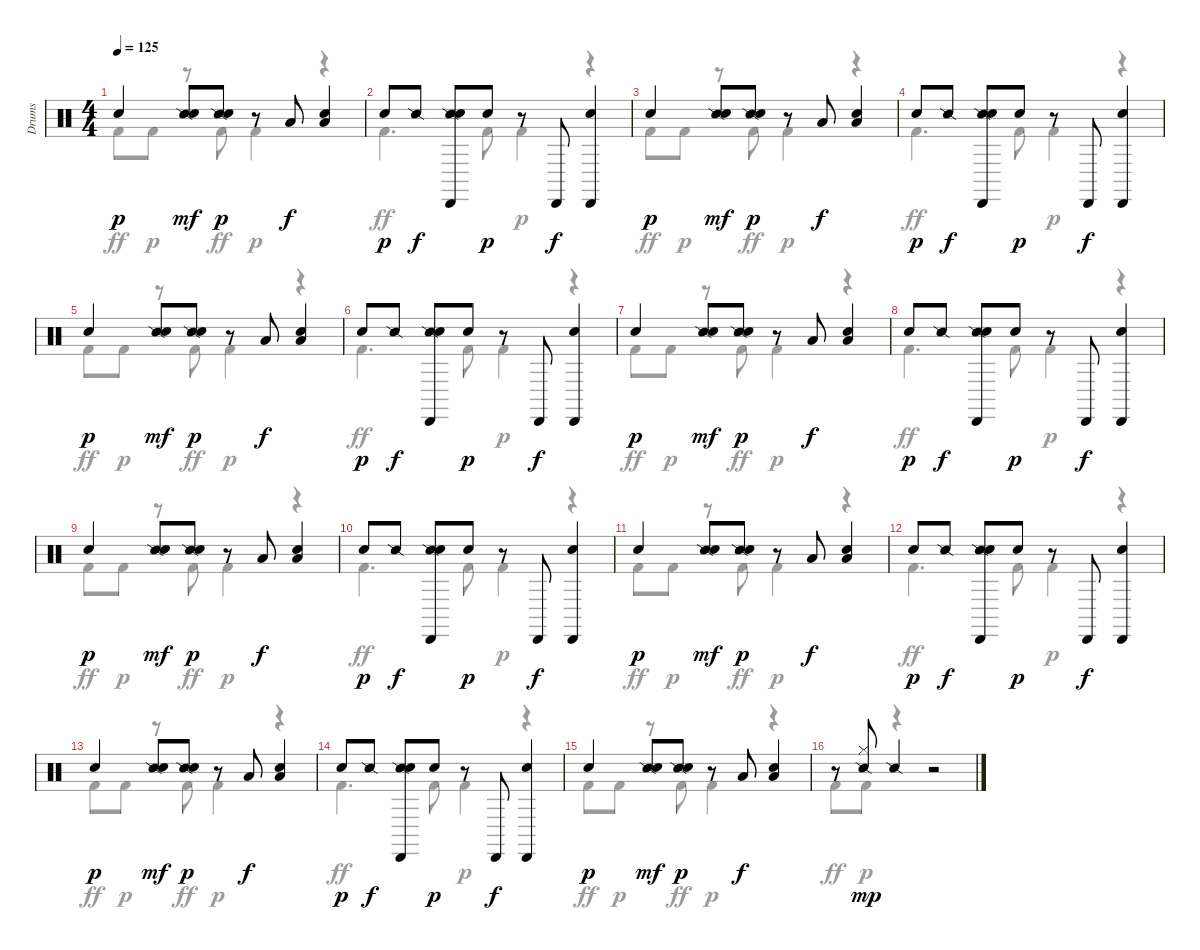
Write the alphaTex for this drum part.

\track ("Drums" "Drums") {instrument percussion}
\staff {score}
\articulation defaults
\voice
\ts (4 4)
\tempo 125
\clef neutral
\ks c "Hand Clap (hit)".4{dy p}
("Snare (side stick) 2" "Snare (hit) 2").8{dy mf} ("Snare (side stick) 2" "Hand Clap (hit)").8{dy p} r.8 "Low Tom (hit)".8{dy f} ("Low Tom (hit)" "Snare (hit) 2").4 |
"Hand Clap (hit)".8{dy p} "Snare (side stick) 2".8{dy f} ("Snare (side stick) 2" "Cabasa (hit)" "Snare (hit) 2").8 "Hand Clap (hit)".8{dy p} r.8 "Cabasa (hit)".8{dy f} ("Cabasa (hit)" "Snare (hit) 2").4 |
"Hand Clap (hit)".4{dy p} ("Snare (side stick) 2" "Snare (hit) 2").8{dy mf} ("Snare (side stick) 2" "Hand Clap (hit)").8{dy p} r.8 "Low Tom (hit)".8{dy f} ("Low Tom (hit)" "Snare (hit) 2").4 |
"Hand Clap (hit)".8{dy p} "Snare (side stick) 2".8{dy f} ("Snare (side stick) 2" "Cabasa (hit)" "Snare (hit) 2").8 "Hand Clap (hit)".8{dy p} r.8 "Cabasa (hit)".8{dy f} ("Cabasa (hit)" "Snare (hit) 2").4 |
"Hand Clap (hit)".4{dy p} ("Snare (side stick) 2" "Snare (hit) 2").8{dy mf} ("Snare (side stick) 2" "Hand Clap (hit)").8{dy p} r.8 "Low Tom (hit)".8{dy f} ("Low Tom (hit)" "Snare (hit) 2").4 |
"Hand Clap (hit)".8{dy p} "Snare (side stick) 2".8{dy f} ("Snare (side stick) 2" "Cabasa (hit)" "Snare (hit) 2").8 "Hand Clap (hit)".8{dy p} r.8 "Cabasa (hit)".8{dy f} ("Cabasa (hit)" "Snare (hit) 2").4 |
"Hand Clap (hit)".4{dy p} ("Snare (side stick) 2" "Snare (hit) 2").8{dy mf} ("Snare (side stick) 2" "Hand Clap (hit)").8{dy p} r.8 "Low Tom (hit)".8{dy f} ("Low Tom (hit)" "Snare (hit) 2").4 |
"Hand Clap (hit)".8{dy p} "Snare (side stick) 2".8{dy f} ("Snare (side stick) 2" "Cabasa (hit)" "Snare (hit) 2").8 "Hand Clap (hit)".8{dy p} r.8 "Cabasa (hit)".8{dy f} ("Cabasa (hit)" "Snare (hit) 2").4 |
"Hand Clap (hit)".4{dy p} ("Snare (side stick) 2" "Snare (hit) 2").8{dy mf} ("Snare (side stick) 2" "Hand Clap (hit)").8{dy p} r.8 "Low Tom (hit)".8{dy f} ("Low Tom (hit)" "Snare (hit) 2").4 |
"Hand Clap (hit)".8{dy p} "Snare (side stick) 2".8{dy f} ("Snare (side stick) 2" "Cabasa (hit)" "Snare (hit) 2").8 "Hand Clap (hit)".8{dy p} r.8 "Cabasa (hit)".8{dy f} ("Cabasa (hit)" "Snare (hit) 2").4 |
"Hand Clap (hit)".4{dy p} ("Snare (side stick) 2" "Snare (hit) 2").8{dy mf} ("Snare (side stick) 2" "Hand Clap (hit)").8{dy p} r.8 "Low Tom (hit)".8{dy f} ("Low Tom (hit)" "Snare (hit) 2").4 |
"Hand Clap (hit)".8{dy p} "Snare (side stick) 2".8{dy f} ("Snare (side stick) 2" "Cabasa (hit)" "Snare (hit) 2").8 "Hand Clap (hit)".8{dy p} r.8 "Cabasa (hit)".8{dy f} ("Cabasa (hit)" "Snare (hit) 2").4 |
"Hand Clap (hit)".4{dy p} ("Snare (side stick) 2" "Snare (hit) 2").8{dy mf} ("Snare (side stick) 2" "Hand Clap (hit)").8{dy p} r.8 "Low Tom (hit)".8{dy f} ("Low Tom (hit)" "Snare (hit) 2").4 |
"Hand Clap (hit)".8{dy p} "Snare (side stick) 2".8{dy f} ("Snare (side stick) 2" "Cabasa (hit)" "Snare (hit) 2").8 "Hand Clap (hit)".8{dy p} r.8 "Cabasa (hit)".8{dy f} ("Cabasa (hit)" "Snare (hit) 2").4 |
"Hand Clap (hit)".4{dy p} ("Snare (side stick) 2" "Snare (hit) 2").8{dy mf} ("Snare (side stick) 2" "Hand Clap (hit)").8{dy p} r.8 "Low Tom (hit)".8{dy f} ("Low Tom (hit)" "Snare (hit) 2").4 |
r.8 ("Hi-Hat (closed)" "Snare (side stick) 2").8{dy mp} "Snare (side stick) 2".4 r.2
\voice
\clef neutral
\ottava regular
\simile none
\ks c "Kick (hit) 2".8{dy ff} "Kick (hit) 2".8{dy p}
r.8 "Kick (hit) 2".8{dy ff} "Kick (hit) 2".4{dy p} r.4 |
"Kick (hit) 2".4{d dy ff} "Kick (hit) 2".8 "Kick (hit) 2".4{dy p} r.4 |
"Kick (hit) 2".8{dy ff} "Kick (hit) 2".8{dy p} r.8 "Kick (hit) 2".8{dy ff} "Kick (hit) 2".4{dy p} r.4 |
"Kick (hit) 2".4{d dy ff} "Kick (hit) 2".8 "Kick (hit) 2".4{dy p} r.4 |
"Kick (hit) 2".8{dy ff} "Kick (hit) 2".8{dy p} r.8 "Kick (hit) 2".8{dy ff} "Kick (hit) 2".4{dy p} r.4 |
"Kick (hit) 2".4{d dy ff} "Kick (hit) 2".8 "Kick (hit) 2".4{dy p} r.4 |
"Kick (hit) 2".8{dy ff} "Kick (hit) 2".8{dy p} r.8 "Kick (hit) 2".8{dy ff} "Kick (hit) 2".4{dy p} r.4 |
"Kick (hit) 2".4{d dy ff} "Kick (hit) 2".8 "Kick (hit) 2".4{dy p} r.4 |
"Kick (hit) 2".8{dy ff} "Kick (hit) 2".8{dy p} r.8 "Kick (hit) 2".8{dy ff} "Kick (hit) 2".4{dy p} r.4 |
"Kick (hit) 2".4{d dy ff} "Kick (hit) 2".8 "Kick (hit) 2".4{dy p} r.4 |
"Kick (hit) 2".8{dy ff} "Kick (hit) 2".8{dy p} r.8 "Kick (hit) 2".8{dy ff} "Kick (hit) 2".4{dy p} r.4 |
"Kick (hit) 2".4{d dy ff} "Kick (hit) 2".8 "Kick (hit) 2".4{dy p} r.4 |
"Kick (hit) 2".8{dy ff} "Kick (hit) 2".8{dy p} r.8 "Kick (hit) 2".8{dy ff} "Kick (hit) 2".4{dy p} r.4 |
"Kick (hit) 2".4{d dy ff} "Kick (hit) 2".8 "Kick (hit) 2".4{dy p} r.4 |
"Kick (hit) 2".8{dy ff} "Kick (hit) 2".8{dy p} r.8 "Kick (hit) 2".8{dy ff} "Kick (hit) 2".4{dy p} r.4 |
"Kick (hit) 2".8{dy ff} "Kick (hit) 2".8{dy p} r.4 r.2
